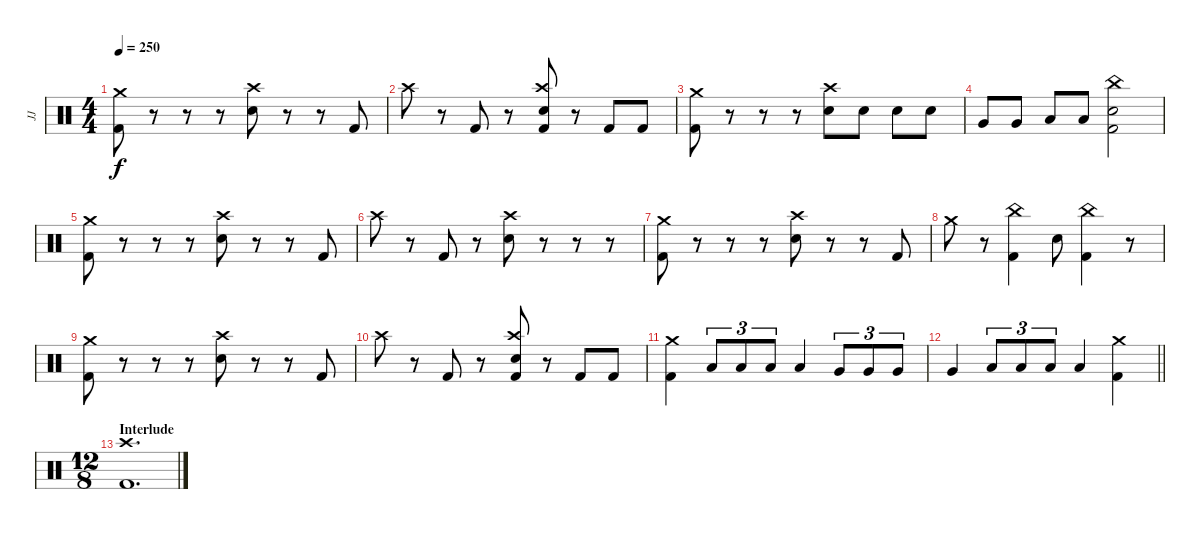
\track ("JJ" "JJ") {instrument percussion}
\staff {score}
\articulation defaults
\ts (4 4)
\tempo 250
\clef neutral
\ks c
("Crash medium (hit)" "Kick (hit) 2").8{dy f} r.8 r.8 r.8 ("Crash high (hit)" "Electric Snare (hit)").8 r.8 r.8 "Kick (hit) 2".8 |
"Crash high (hit)".8 r.8 "Kick (hit) 2".8 r.8 ("Crash high (hit)" "Electric Snare (hit)" "Kick (hit) 2").8 r.8 "Kick (hit) 2".8 "Kick (hit) 2".8 |
("Crash medium (hit)" "Kick (hit) 2").8 r.8 r.8 r.8 ("Crash high (hit)" "Electric Snare (hit)").8 "Electric Snare (hit)".8 "Electric Snare (hit)".8 "Electric Snare (hit)".8 |
"Very Low Tom (hit)".8 "Very Low Tom (hit)".8 "Low Floor Tom (hit)".8 "Low Floor Tom (hit)".8 ("China (hit)" "Electric Snare (hit)" "Kick (hit) 2").2 |
("Crash medium (hit)" "Kick (hit) 2").8 r.8 r.8 r.8 ("Crash high (hit)" "Electric Snare (hit)").8 r.8 r.8 "Kick (hit) 2".8 |
"Crash high (hit)".8 r.8 "Kick (hit) 2".8 r.8 ("Crash high (hit)" "Electric Snare (hit)").8 r.8 r.8 r.8 |
("Crash medium (hit)" "Kick (hit) 2").8 r.8 r.8 r.8 ("Crash high (hit)" "Electric Snare (hit)").8 r.8 r.8 "Kick (hit) 2".8 |
"Crash medium (hit)".8 r.8 ("China (hit)" "Kick (hit) 2").4 "Electric Snare (hit)".8 ("China (hit)" "Kick (hit) 2").4 r.8 |
("Crash medium (hit)" "Kick (hit) 2").8 r.8 r.8 r.8 ("Crash high (hit)" "Electric Snare (hit)").8 r.8 r.8 "Kick (hit) 2".8 |
"Crash high (hit)".8 r.8 "Kick (hit) 2".8 r.8 ("Crash high (hit)" "Electric Snare (hit)" "Kick (hit) 2").8 r.8 "Kick (hit) 2".8 "Kick (hit) 2".8 |
("Crash medium (hit)" "Kick (hit) 2").4 "Low Floor Tom (hit)".8{tu (3 2)} "Low Floor Tom (hit)".8{tu (3 2)} "Low Floor Tom (hit)".8{tu (3 2)} "Low Floor Tom (hit)".4 "Very Low Tom (hit)".8{tu (3 2)} "Very Low Tom (hit)".8{tu (3 2)} "Very Low Tom (hit)".8{tu (3 2)} |
\barLineRight lightlight "Very Low Tom (hit)".4 "Low Floor Tom (hit)".8{tu (3 2)} "Low Floor Tom (hit)".8{tu (3 2)} "Low Floor Tom (hit)".8{tu (3 2)} "Low Floor Tom (hit)".4
("Crash medium (hit)" "Kick (hit) 2").4 |
\ts (12 8)
\section ("" "Interlude")
("Crash high (hit)" "Kick (hit) 2").1{d}
